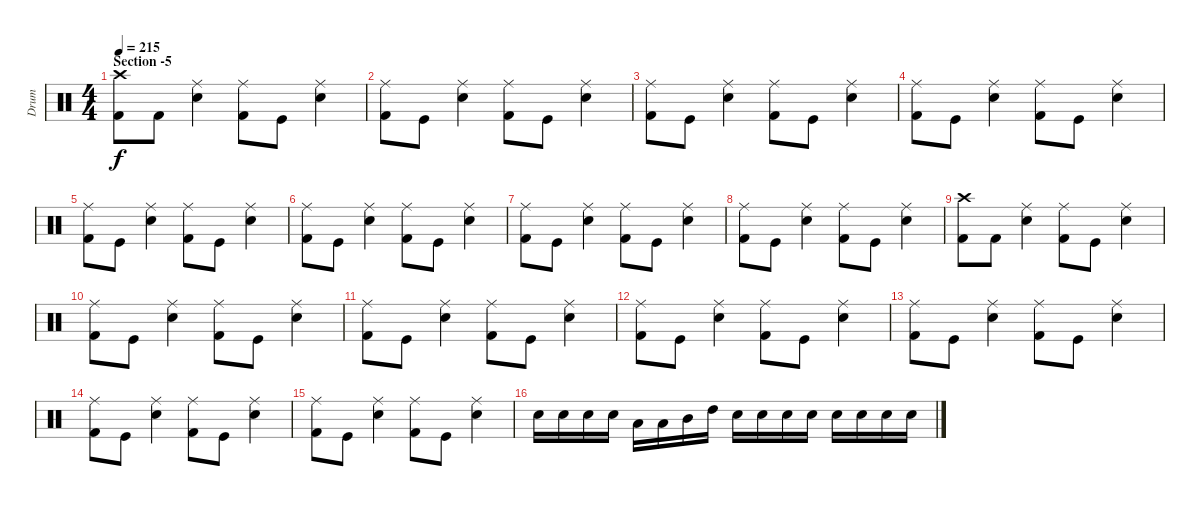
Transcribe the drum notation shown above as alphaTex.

\track ("Drum" "Drum") {instrument percussion}
\staff {score}
\articulation defaults
\ts (4 4)
\section ("" "Section -5")
\tempo 215
\clef neutral
\ks c
("Kick (hit) 2" "Crash high (hit)").8{dy f} "Kick (hit) 2".8 ("Electric Snare (hit)" "Ride (middle)").4 ("Kick (hit) 2" "Ride (middle)").8 "Kick (hit)".8 ("Electric Snare (hit)" "Ride (middle)").4 |
("Kick (hit) 2" "Ride (middle)").8 "Kick (hit)".8 ("Electric Snare (hit)" "Ride (middle)").4 ("Kick (hit) 2" "Ride (middle)").8 "Kick (hit)".8 ("Electric Snare (hit)" "Ride (middle)").4 |
("Kick (hit) 2" "Ride (middle)").8 "Kick (hit)".8 ("Electric Snare (hit)" "Ride (middle)").4 ("Kick (hit) 2" "Ride (middle)").8 "Kick (hit)".8 ("Electric Snare (hit)" "Ride (middle)").4 |
("Kick (hit) 2" "Ride (middle)").8 "Kick (hit)".8 ("Electric Snare (hit)" "Ride (middle)").4 ("Kick (hit) 2" "Ride (middle)").8 "Kick (hit)".8 ("Electric Snare (hit)" "Ride (middle)").4 |
("Kick (hit) 2" "Ride (middle)").8 "Kick (hit)".8 ("Electric Snare (hit)" "Ride (middle)").4 ("Kick (hit) 2" "Ride (middle)").8 "Kick (hit)".8 ("Electric Snare (hit)" "Ride (middle)").4 |
("Kick (hit) 2" "Ride (middle)").8 "Kick (hit)".8 ("Electric Snare (hit)" "Ride (middle)").4 ("Kick (hit) 2" "Ride (middle)").8 "Kick (hit)".8 ("Electric Snare (hit)" "Ride (middle)").4 |
("Kick (hit) 2" "Ride (middle)").8 "Kick (hit)".8 ("Electric Snare (hit)" "Ride (middle)").4 ("Kick (hit) 2" "Ride (middle)").8 "Kick (hit)".8 ("Electric Snare (hit)" "Ride (middle)").4 |
("Kick (hit) 2" "Ride (middle)").8 "Kick (hit)".8 ("Electric Snare (hit)" "Ride (middle)").4 ("Kick (hit) 2" "Ride (middle)").8 "Kick (hit)".8 ("Electric Snare (hit)" "Ride (middle)").4 |
("Kick (hit) 2" "Crash high (hit)").8 "Kick (hit) 2".8 ("Electric Snare (hit)" "Ride (middle)").4 ("Kick (hit) 2" "Ride (middle)").8 "Kick (hit)".8 ("Electric Snare (hit)" "Ride (middle)").4 |
("Kick (hit) 2" "Ride (middle)").8 "Kick (hit)".8 ("Electric Snare (hit)" "Ride (middle)").4 ("Kick (hit) 2" "Ride (middle)").8 "Kick (hit)".8 ("Electric Snare (hit)" "Ride (middle)").4 |
("Kick (hit) 2" "Ride (middle)").8 "Kick (hit)".8 ("Electric Snare (hit)" "Ride (middle)").4 ("Kick (hit) 2" "Ride (middle)").8 "Kick (hit)".8 ("Electric Snare (hit)" "Ride (middle)").4 |
("Kick (hit) 2" "Ride (middle)").8 "Kick (hit)".8 ("Electric Snare (hit)" "Ride (middle)").4 ("Kick (hit) 2" "Ride (middle)").8 "Kick (hit)".8 ("Electric Snare (hit)" "Ride (middle)").4 |
("Kick (hit) 2" "Ride (middle)").8 "Kick (hit)".8 ("Electric Snare (hit)" "Ride (middle)").4 ("Kick (hit) 2" "Ride (middle)").8 "Kick (hit)".8 ("Electric Snare (hit)" "Ride (middle)").4 |
("Kick (hit) 2" "Ride (middle)").8 "Kick (hit)".8 ("Electric Snare (hit)" "Ride (middle)").4 ("Kick (hit) 2" "Ride (middle)").8 "Kick (hit)".8 ("Electric Snare (hit)" "Ride (middle)").4 |
("Kick (hit) 2" "Ride (middle)").8 "Kick (hit)".8 ("Electric Snare (hit)" "Ride (middle)").4 ("Kick (hit) 2" "Ride (middle)").8 "Kick (hit)".8 ("Electric Snare (hit)" "Ride (middle)").4 |
"Electric Snare (hit)".16 "Electric Snare (hit)".16 "Electric Snare (hit)".16 "Electric Snare (hit)".16 "Low Floor Tom (hit)".16 "Low Tom (hit)".16 "Mid Tom (hit)".16 "High Tom (hit)".16 "Electric Snare (hit)".16 "Electric Snare (hit)".16 "Electric Snare (hit)".16 "Electric Snare (hit)".16 "Electric Snare (hit)".16 "Electric Snare (hit)".16 "Electric Snare (hit)".16 "Electric Snare (hit)".16
